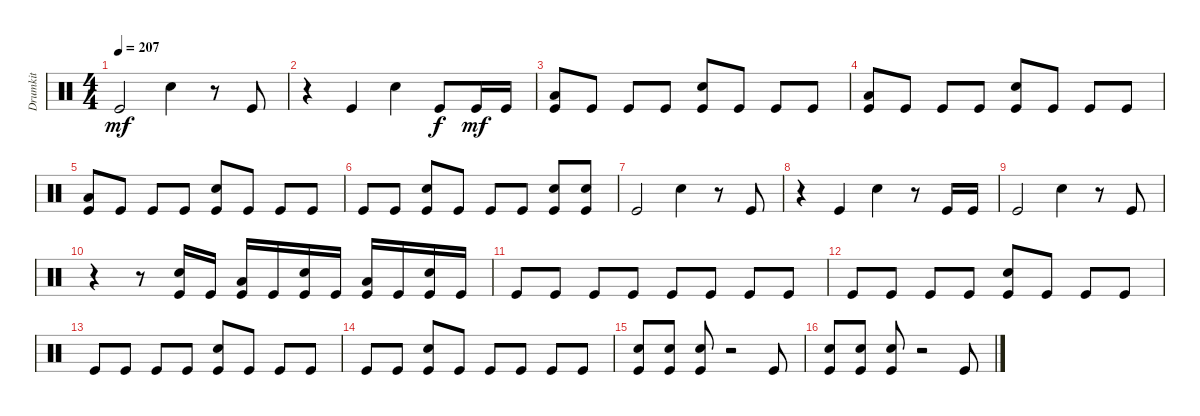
\track ("Drumkit" "Drumkit") {instrument percussion}
\staff {score}
\articulation defaults
\ts (4 4)
\tempo 207
\clef neutral
\ks c "Kick (hit)".2{dy mf} "Snare (hit) 2".4
r.8 "Kick (hit)".8 |
r.4 "Kick (hit)".4 "Snare (hit) 2".4 "Kick (hit)".8{dy f} "Kick (hit)".16{dy mf} "Kick (hit)".16 |
("Kick (hit)" "Low Tom (hit)").8 "Kick (hit)".8 "Kick (hit)".8 "Kick (hit)".8 ("Kick (hit)" "Snare (hit) 2").8 "Kick (hit)".8 "Kick (hit)".8 "Kick (hit)".8 |
("Kick (hit)" "Low Tom (hit)").8 "Kick (hit)".8 "Kick (hit)".8 "Kick (hit)".8 ("Kick (hit)" "Snare (hit) 2").8 "Kick (hit)".8 "Kick (hit)".8 "Kick (hit)".8 |
("Kick (hit)" "Low Tom (hit)").8 "Kick (hit)".8 "Kick (hit)".8 "Kick (hit)".8 ("Kick (hit)" "Snare (hit) 2").8 "Kick (hit)".8 "Kick (hit)".8 "Kick (hit)".8 |
"Kick (hit)".8 "Kick (hit)".8 ("Kick (hit)" "Snare (hit) 2").8 "Kick (hit)".8 "Kick (hit)".8 "Kick (hit)".8 ("Kick (hit)" "Snare (hit) 2").8 ("Kick (hit)" "Snare (hit) 2").8 |
"Kick (hit)".2 "Snare (hit) 2".4 r.8 "Kick (hit)".8 |
r.4 "Kick (hit)".4 "Snare (hit) 2".4 r.8 "Kick (hit)".16 "Kick (hit)".16 |
"Kick (hit)".2 "Snare (hit) 2".4 r.8 "Kick (hit)".8 |
r.4 r.8 ("Kick (hit)" "Snare (hit) 2").16 "Kick (hit)".16 ("Kick (hit)" "Low Tom (hit)").16 "Kick (hit)".16 ("Kick (hit)" "Snare (hit) 2").16 "Kick (hit)".16 ("Kick (hit)" "Low Tom (hit)").16 "Kick (hit)".16 ("Kick (hit)" "Snare (hit) 2").16 "Kick (hit)".16 |
"Kick (hit)".8 "Kick (hit)".8 "Kick (hit)".8 "Kick (hit)".8 "Kick (hit)".8 "Kick (hit)".8 "Kick (hit)".8 "Kick (hit)".8 |
"Kick (hit)".8 "Kick (hit)".8 "Kick (hit)".8 "Kick (hit)".8 ("Kick (hit)" "Snare (hit) 2").8 "Kick (hit)".8 "Kick (hit)".8 "Kick (hit)".8 |
"Kick (hit)".8 "Kick (hit)".8 "Kick (hit)".8 "Kick (hit)".8 ("Kick (hit)" "Snare (hit) 2").8 "Kick (hit)".8 "Kick (hit)".8 "Kick (hit)".8 |
"Kick (hit)".8 "Kick (hit)".8 ("Kick (hit)" "Snare (hit) 2").8 "Kick (hit)".8 "Kick (hit)".8 "Kick (hit)".8 "Kick (hit)".8 "Kick (hit)".8 |
("Kick (hit)" "Snare (hit) 2").8 ("Kick (hit)" "Snare (hit) 2").8 ("Kick (hit)" "Snare (hit) 2").8 r.2 "Kick (hit)".8 |
("Kick (hit)" "Snare (hit) 2").8 ("Kick (hit)" "Snare (hit) 2").8 ("Kick (hit)" "Snare (hit) 2").8 r.2 "Kick (hit)".8
